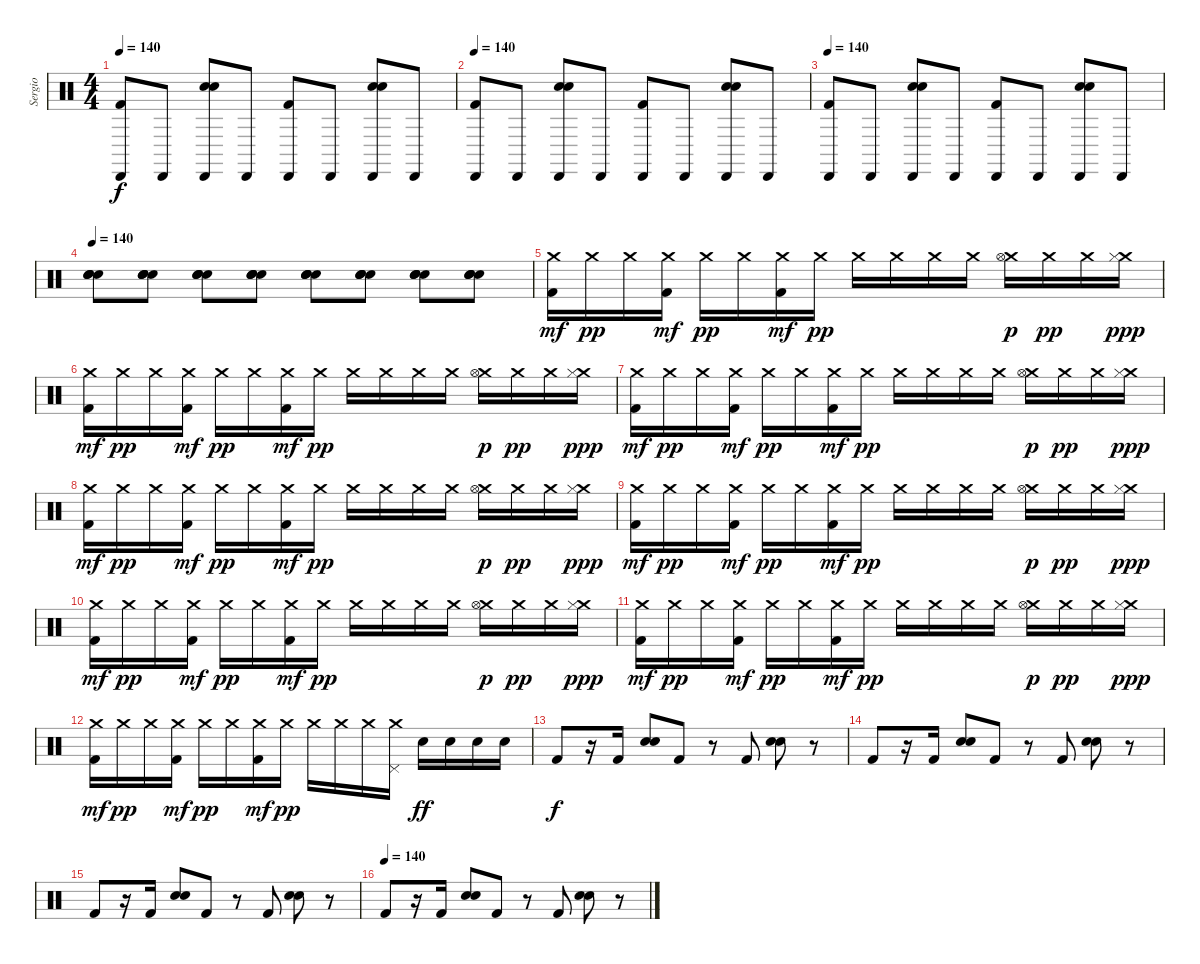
\track ("Sergio" "Sergio") {instrument percussion}
\staff {score}
\articulation defaults
\ts (4 4)
\tempo 140
\clef neutral
\ks c
("Kick (hit) 2" "Cabasa (hit)").8{dy f} "Cabasa (hit)".8 ("Snare (hit) 2" "Cabasa (hit)" "Snare (hit) 2").8 "Cabasa (hit)".8 ("Kick (hit) 2" "Cabasa (hit)").8 "Cabasa (hit)".8 ("Snare (hit) 2" "Cabasa (hit)" "Snare (hit) 2").8 "Cabasa (hit)".8 |
\tempo 140
("Kick (hit) 2" "Cabasa (hit)").8 "Cabasa (hit)".8 ("Snare (hit) 2" "Cabasa (hit)" "Snare (hit) 2").8 "Cabasa (hit)".8 ("Kick (hit) 2" "Cabasa (hit)").8 "Cabasa (hit)".8 ("Snare (hit) 2" "Cabasa (hit)" "Snare (hit) 2").8 "Cabasa (hit)".8 |
\tempo 140
("Kick (hit) 2" "Cabasa (hit)").8 "Cabasa (hit)".8 ("Snare (hit) 2" "Cabasa (hit)" "Snare (hit) 2").8 "Cabasa (hit)".8 ("Kick (hit) 2" "Cabasa (hit)").8 "Cabasa (hit)".8 ("Snare (hit) 2" "Cabasa (hit)" "Snare (hit) 2").8 "Cabasa (hit)".8 |
\tempo 140
("Snare (hit) 2" "Electric Snare (hit)" "Electric Snare (hit)" "Snare (hit) 2").8 ("Snare (hit) 2" "Electric Snare (hit)" "Electric Snare (hit)" "Snare (hit) 2").8 ("Snare (hit) 2" "Electric Snare (hit)" "Electric Snare (hit)" "Snare (hit) 2").8 ("Snare (hit) 2" "Electric Snare (hit)" "Electric Snare (hit)" "Snare (hit) 2").8 ("Snare (hit) 2" "Electric Snare (hit)" "Electric Snare (hit)" "Snare (hit) 2").8 ("Snare (hit) 2" "Electric Snare (hit)" "Electric Snare (hit)" "Snare (hit) 2").8 ("Snare (hit) 2" "Electric Snare (hit)" "Electric Snare (hit)" "Snare (hit) 2").8 ("Snare (hit) 2" "Electric Snare (hit)" "Electric Snare (hit)" "Snare (hit) 2").8 |
("Crash medium (hit)" "Kick (hit) 2").16{dy mf} "Crash medium (hit)".16{dy pp} "Crash medium (hit)".16 ("Crash medium (hit)" "Kick (hit) 2").16{dy mf} "Crash medium (hit)".16{dy pp} "Crash medium (hit)".16 ("Crash medium (hit)" "Kick (hit) 2").16{dy mf} "Crash medium (hit)".16{dy pp} "Crash medium (hit)".16 "Crash medium (hit)".16 "Crash medium (hit)".16 "Crash medium (hit)".16 ("Crash medium (hit)" "Hi-Hat (open)").16{dy p} "Crash medium (hit)".16{dy pp} "Crash medium (hit)".16 ("Crash medium (hit)" "Hi-Hat (closed)").16{dy ppp} |
("Crash medium (hit)" "Kick (hit) 2").16{dy mf} "Crash medium (hit)".16{dy pp} "Crash medium (hit)".16 ("Crash medium (hit)" "Kick (hit) 2").16{dy mf} "Crash medium (hit)".16{dy pp} "Crash medium (hit)".16 ("Crash medium (hit)" "Kick (hit) 2").16{dy mf} "Crash medium (hit)".16{dy pp} "Crash medium (hit)".16 "Crash medium (hit)".16 "Crash medium (hit)".16 "Crash medium (hit)".16 ("Crash medium (hit)" "Hi-Hat (open)").16{dy p} "Crash medium (hit)".16{dy pp} "Crash medium (hit)".16 ("Crash medium (hit)" "Hi-Hat (closed)").16{dy ppp} |
("Crash medium (hit)" "Kick (hit) 2").16{dy mf} "Crash medium (hit)".16{dy pp} "Crash medium (hit)".16 ("Crash medium (hit)" "Kick (hit) 2").16{dy mf} "Crash medium (hit)".16{dy pp} "Crash medium (hit)".16 ("Crash medium (hit)" "Kick (hit) 2").16{dy mf} "Crash medium (hit)".16{dy pp} "Crash medium (hit)".16 "Crash medium (hit)".16 "Crash medium (hit)".16 "Crash medium (hit)".16 ("Crash medium (hit)" "Hi-Hat (open)").16{dy p} "Crash medium (hit)".16{dy pp} "Crash medium (hit)".16 ("Crash medium (hit)" "Hi-Hat (closed)").16{dy ppp} |
("Crash medium (hit)" "Kick (hit) 2").16{dy mf} "Crash medium (hit)".16{dy pp} "Crash medium (hit)".16 ("Crash medium (hit)" "Kick (hit) 2").16{dy mf} "Crash medium (hit)".16{dy pp} "Crash medium (hit)".16 ("Crash medium (hit)" "Kick (hit) 2").16{dy mf} "Crash medium (hit)".16{dy pp} "Crash medium (hit)".16 "Crash medium (hit)".16 "Crash medium (hit)".16 "Crash medium (hit)".16 ("Crash medium (hit)" "Hi-Hat (open)").16{dy p} "Crash medium (hit)".16{dy pp} "Crash medium (hit)".16 ("Crash medium (hit)" "Hi-Hat (closed)").16{dy ppp} |
("Crash medium (hit)" "Kick (hit) 2").16{dy mf} "Crash medium (hit)".16{dy pp} "Crash medium (hit)".16 ("Crash medium (hit)" "Kick (hit) 2").16{dy mf} "Crash medium (hit)".16{dy pp} "Crash medium (hit)".16 ("Crash medium (hit)" "Kick (hit) 2").16{dy mf} "Crash medium (hit)".16{dy pp} "Crash medium (hit)".16 "Crash medium (hit)".16 "Crash medium (hit)".16 "Crash medium (hit)".16 ("Crash medium (hit)" "Hi-Hat (open)").16{dy p} "Crash medium (hit)".16{dy pp} "Crash medium (hit)".16 ("Crash medium (hit)" "Hi-Hat (closed)").16{dy ppp} |
("Crash medium (hit)" "Kick (hit) 2").16{dy mf} "Crash medium (hit)".16{dy pp} "Crash medium (hit)".16 ("Crash medium (hit)" "Kick (hit) 2").16{dy mf} "Crash medium (hit)".16{dy pp} "Crash medium (hit)".16 ("Crash medium (hit)" "Kick (hit) 2").16{dy mf} "Crash medium (hit)".16{dy pp} "Crash medium (hit)".16 "Crash medium (hit)".16 "Crash medium (hit)".16 "Crash medium (hit)".16 ("Crash medium (hit)" "Hi-Hat (open)").16{dy p} "Crash medium (hit)".16{dy pp} "Crash medium (hit)".16 ("Crash medium (hit)" "Hi-Hat (closed)").16{dy ppp} |
("Crash medium (hit)" "Kick (hit) 2").16{dy mf} "Crash medium (hit)".16{dy pp} "Crash medium (hit)".16 ("Crash medium (hit)" "Kick (hit) 2").16{dy mf} "Crash medium (hit)".16{dy pp} "Crash medium (hit)".16 ("Crash medium (hit)" "Kick (hit) 2").16{dy mf} "Crash medium (hit)".16{dy pp} "Crash medium (hit)".16 "Crash medium (hit)".16 "Crash medium (hit)".16 "Crash medium (hit)".16 ("Crash medium (hit)" "Hi-Hat (open)").16{dy p} "Crash medium (hit)".16{dy pp} "Crash medium (hit)".16 ("Crash medium (hit)" "Hi-Hat (closed)").16{dy ppp} |
("Crash medium (hit)" "Kick (hit) 2").16{dy mf} "Crash medium (hit)".16{dy pp} "Crash medium (hit)".16 ("Crash medium (hit)" "Kick (hit) 2").16{dy mf} "Crash medium (hit)".16{dy pp} "Crash medium (hit)".16 ("Crash medium (hit)" "Kick (hit) 2").16{dy mf} "Crash medium (hit)".16{dy pp} "Crash medium (hit)".16 "Crash medium (hit)".16 "Crash medium (hit)".16 ("Crash medium (hit)" "Pedal Hi-Hat (hit)").16 "Electric Snare (hit)".16{dy ff} "Electric Snare (hit)".16 "Electric Snare (hit)".16 "Electric Snare (hit)".16 |
"Kick (hit) 2".8{dy f} r.16 "Kick (hit) 2".16 ("Snare (hit) 2" "Snare (hit) 2").8 "Kick (hit) 2".8 r.8 "Kick (hit) 2".8 ("Snare (hit) 2" "Snare (hit) 2").8 r.8 |
"Kick (hit) 2".8 r.16 "Kick (hit) 2".16 ("Snare (hit) 2" "Snare (hit) 2").8 "Kick (hit) 2".8 r.8 "Kick (hit) 2".8 ("Snare (hit) 2" "Snare (hit) 2").8 r.8 |
"Kick (hit) 2".8 r.16 "Kick (hit) 2".16 ("Snare (hit) 2" "Snare (hit) 2").8 "Kick (hit) 2".8 r.8 "Kick (hit) 2".8 ("Snare (hit) 2" "Snare (hit) 2").8 r.8 |
\tempo (140)
"Kick (hit) 2".8 r.16 "Kick (hit) 2".16 ("Snare (hit) 2" "Snare (hit) 2").8 "Kick (hit) 2".8 r.8 "Kick (hit) 2".8 ("Snare (hit) 2" "Snare (hit) 2").8 r.8
